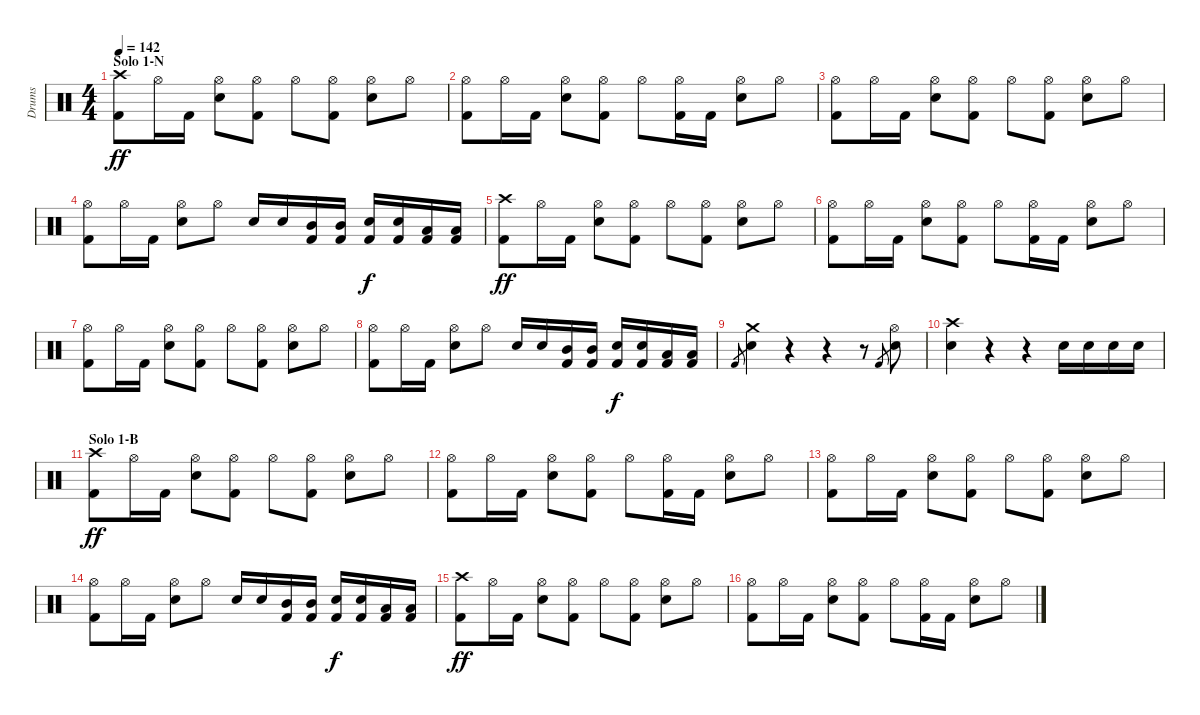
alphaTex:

\track ("Drums" "Drums") {instrument percussion}
\staff {score}
\articulation defaults
\ts (4 4)
\section ("" "Solo 1-N")
\tempo 142
\clef neutral
\ks c
("Kick (hit) 2" "Crash high (hit)").8{dy ff} "Hi-Hat (open)".16 "Kick (hit) 2".16 ("Hi-Hat (open)" "Electric Snare (hit)").8 ("Kick (hit) 2" "Hi-Hat (open)").8 "Hi-Hat (open)".8 ("Kick (hit) 2" "Hi-Hat (open)").8 ("Hi-Hat (open)" "Electric Snare (hit)").8 "Hi-Hat (open)".8 |
("Kick (hit) 2" "Hi-Hat (open)").8 "Hi-Hat (open)".16 "Kick (hit) 2".16 ("Hi-Hat (open)" "Electric Snare (hit)").8 ("Kick (hit) 2" "Hi-Hat (open)").8 "Hi-Hat (open)".8 ("Kick (hit) 2" "Hi-Hat (open)").16 "Kick (hit) 2".16 ("Hi-Hat (open)" "Electric Snare (hit)").8 "Hi-Hat (open)".8 |
("Kick (hit) 2" "Hi-Hat (open)").8 "Hi-Hat (open)".16 "Kick (hit) 2".16 ("Hi-Hat (open)" "Electric Snare (hit)").8 ("Kick (hit) 2" "Hi-Hat (open)").8 "Hi-Hat (open)".8 ("Kick (hit) 2" "Hi-Hat (open)").8 ("Hi-Hat (open)" "Electric Snare (hit)").8 "Hi-Hat (open)".8 |
("Kick (hit) 2" "Hi-Hat (open)").8 "Hi-Hat (open)".16 "Kick (hit) 2".16 ("Hi-Hat (open)" "Electric Snare (hit)").8 "Hi-Hat (open)".8 "Electric Snare (hit)".16 "Electric Snare (hit)".16 ("Kick (hit) 2" "Mid Tom (hit)").16 ("Kick (hit) 2" "Mid Tom (hit)").16 ("Kick (hit) 2" "Electric Snare (hit)").16{dy f} ("Kick (hit) 2" "Electric Snare (hit)").16 ("Kick (hit) 2" "Low Tom (hit)").16 ("Kick (hit) 2" "Low Tom (hit)").16 |
("Kick (hit) 2" "Crash high (hit)").8{dy ff} "Hi-Hat (open)".16 "Kick (hit) 2".16 ("Hi-Hat (open)" "Electric Snare (hit)").8 ("Kick (hit) 2" "Hi-Hat (open)").8 "Hi-Hat (open)".8 ("Kick (hit) 2" "Hi-Hat (open)").8 ("Hi-Hat (open)" "Electric Snare (hit)").8 "Hi-Hat (open)".8 |
("Kick (hit) 2" "Hi-Hat (open)").8 "Hi-Hat (open)".16 "Kick (hit) 2".16 ("Hi-Hat (open)" "Electric Snare (hit)").8 ("Kick (hit) 2" "Hi-Hat (open)").8 "Hi-Hat (open)".8 ("Kick (hit) 2" "Hi-Hat (open)").16 "Kick (hit) 2".16 ("Hi-Hat (open)" "Electric Snare (hit)").8 "Hi-Hat (open)".8 |
("Kick (hit) 2" "Hi-Hat (open)").8 "Hi-Hat (open)".16 "Kick (hit) 2".16 ("Hi-Hat (open)" "Electric Snare (hit)").8 ("Kick (hit) 2" "Hi-Hat (open)").8 "Hi-Hat (open)".8 ("Kick (hit) 2" "Hi-Hat (open)").8 ("Hi-Hat (open)" "Electric Snare (hit)").8 "Hi-Hat (open)".8 |
("Kick (hit) 2" "Hi-Hat (open)").8 "Hi-Hat (open)".16 "Kick (hit) 2".16 ("Hi-Hat (open)" "Electric Snare (hit)").8 "Hi-Hat (open)".8 "Electric Snare (hit)".16 "Electric Snare (hit)".16 ("Kick (hit) 2" "Mid Tom (hit)").16 ("Kick (hit) 2" "Mid Tom (hit)").16 ("Kick (hit) 2" "Electric Snare (hit)").16{dy f} ("Kick (hit) 2" "Electric Snare (hit)").16 ("Kick (hit) 2" "Low Tom (hit)").16 ("Kick (hit) 2" "Low Tom (hit)").16 |
"Kick (hit) 2".8{gr} ("Crash medium (hit)" "Snare (hit) 2").4 r.4 r.4 r.8 "Kick (hit) 2".8{gr} ("Hi-Hat (open)" "Snare (hit) 2").8 |
("Crash high (hit)" "Electric Snare (hit)").4 r.4 r.4 "Electric Snare (hit)".16 "Electric Snare (hit)".16 "Electric Snare (hit)".16 "Electric Snare (hit)".16 |
\section ("" "Solo 1-B")
("Kick (hit) 2" "Crash high (hit)").8{dy ff} "Hi-Hat (open)".16 "Kick (hit) 2".16 ("Hi-Hat (open)" "Electric Snare (hit)").8 ("Kick (hit) 2" "Hi-Hat (open)").8 "Hi-Hat (open)".8 ("Kick (hit) 2" "Hi-Hat (open)").8 ("Hi-Hat (open)" "Electric Snare (hit)").8 "Hi-Hat (open)".8 |
("Kick (hit) 2" "Hi-Hat (open)").8 "Hi-Hat (open)".16 "Kick (hit) 2".16 ("Hi-Hat (open)" "Electric Snare (hit)").8 ("Kick (hit) 2" "Hi-Hat (open)").8 "Hi-Hat (open)".8 ("Kick (hit) 2" "Hi-Hat (open)").16 "Kick (hit) 2".16 ("Hi-Hat (open)" "Electric Snare (hit)").8 "Hi-Hat (open)".8 |
("Kick (hit) 2" "Hi-Hat (open)").8 "Hi-Hat (open)".16 "Kick (hit) 2".16 ("Hi-Hat (open)" "Electric Snare (hit)").8 ("Kick (hit) 2" "Hi-Hat (open)").8 "Hi-Hat (open)".8 ("Kick (hit) 2" "Hi-Hat (open)").8 ("Hi-Hat (open)" "Electric Snare (hit)").8 "Hi-Hat (open)".8 |
("Kick (hit) 2" "Hi-Hat (open)").8 "Hi-Hat (open)".16 "Kick (hit) 2".16 ("Hi-Hat (open)" "Electric Snare (hit)").8 "Hi-Hat (open)".8 "Electric Snare (hit)".16 "Electric Snare (hit)".16 ("Kick (hit) 2" "Mid Tom (hit)").16 ("Kick (hit) 2" "Mid Tom (hit)").16 ("Kick (hit) 2" "Electric Snare (hit)").16{dy f} ("Kick (hit) 2" "Electric Snare (hit)").16 ("Kick (hit) 2" "Low Tom (hit)").16 ("Kick (hit) 2" "Low Tom (hit)").16 |
("Kick (hit) 2" "Crash high (hit)").8{dy ff} "Hi-Hat (open)".16 "Kick (hit) 2".16 ("Hi-Hat (open)" "Electric Snare (hit)").8 ("Kick (hit) 2" "Hi-Hat (open)").8 "Hi-Hat (open)".8 ("Kick (hit) 2" "Hi-Hat (open)").8 ("Hi-Hat (open)" "Electric Snare (hit)").8 "Hi-Hat (open)".8 |
("Kick (hit) 2" "Hi-Hat (open)").8 "Hi-Hat (open)".16 "Kick (hit) 2".16 ("Hi-Hat (open)" "Electric Snare (hit)").8 ("Kick (hit) 2" "Hi-Hat (open)").8 "Hi-Hat (open)".8 ("Kick (hit) 2" "Hi-Hat (open)").16 "Kick (hit) 2".16 ("Hi-Hat (open)" "Electric Snare (hit)").8 "Hi-Hat (open)".8
